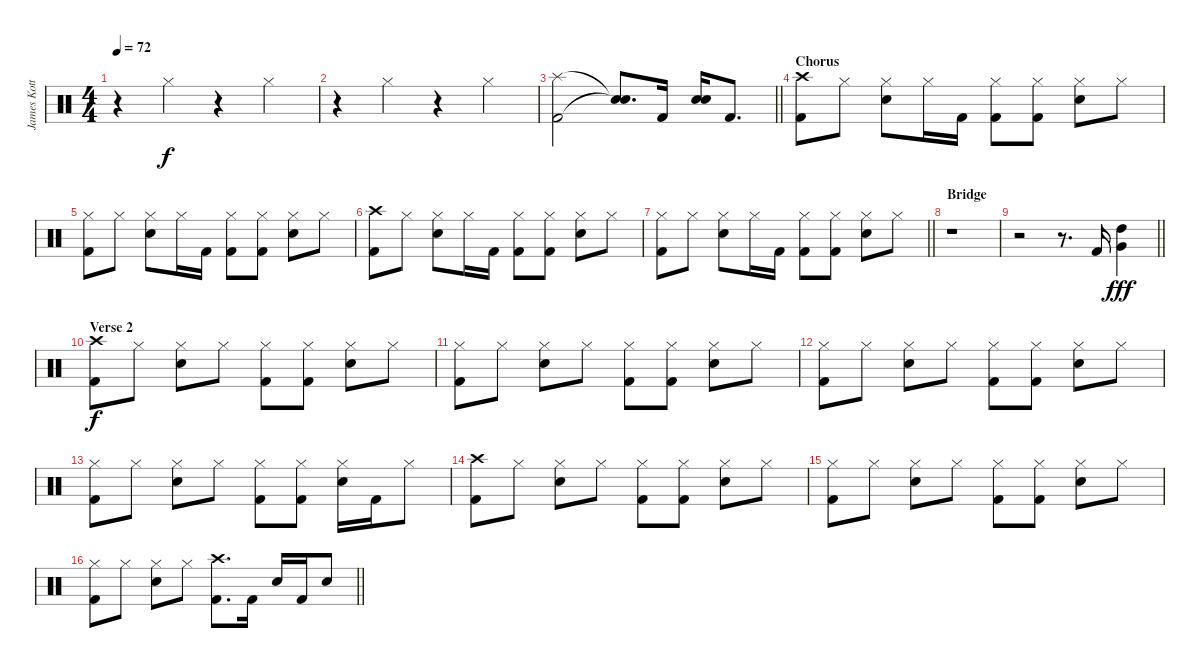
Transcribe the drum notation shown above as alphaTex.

\track ("James Kottak" "James Kott") {instrument percussion}
\staff {score}
\articulation defaults
\ts (4 4)
\tempo 72
\clef neutral
\ks c
r.4{dy f} "Hi-Hat (closed)".4 r.4 "Hi-Hat (closed)".4 |
r.4 "Hi-Hat (closed)".4 r.4 "Hi-Hat (closed)".4 |
\barLineRight lightlight
("Splash (hit)" "Kick (hit) 2").2 ("Snare (hit)"{t} "Snare (hit)"{t}).8{d} "Kick (hit) 2".16 ("Snare (hit) 2" "Snare (hit) 2").16 "Kick (hit) 2".8{d} |
\section ("" "Chorus")
("Crash high (hit)" "Kick (hit) 2").8 "Hi-Hat (closed)".8 ("Hi-Hat (closed)" "Snare (hit) 2").8 "Hi-Hat (closed)".16 "Kick (hit) 2".16 ("Hi-Hat (closed)" "Kick (hit) 2").8 ("Hi-Hat (closed)" "Kick (hit) 2").8 ("Hi-Hat (closed)" "Snare (hit) 2").8 "Hi-Hat (closed)".8 |
("Hi-Hat (closed)" "Kick (hit) 2").8 "Hi-Hat (closed)".8 ("Hi-Hat (closed)" "Snare (hit) 2").8 "Hi-Hat (closed)".16 "Kick (hit) 2".16 ("Hi-Hat (closed)" "Kick (hit) 2").8 ("Hi-Hat (closed)" "Kick (hit) 2").8 ("Hi-Hat (closed)" "Snare (hit) 2").8 "Hi-Hat (closed)".8 |
("Crash high (hit)" "Kick (hit) 2").8 "Hi-Hat (closed)".8 ("Hi-Hat (closed)" "Snare (hit) 2").8 "Hi-Hat (closed)".16 "Kick (hit) 2".16 ("Hi-Hat (closed)" "Kick (hit) 2").8 ("Hi-Hat (closed)" "Kick (hit) 2").8 ("Hi-Hat (closed)" "Snare (hit) 2").8 "Hi-Hat (closed)".8 |
\barLineRight lightlight
("Hi-Hat (closed)" "Kick (hit) 2").8 "Hi-Hat (closed)".8 ("Hi-Hat (closed)" "Snare (hit) 2").8 "Hi-Hat (closed)".16 "Kick (hit) 2".16 ("Hi-Hat (closed)" "Kick (hit) 2").8 ("Hi-Hat (closed)" "Kick (hit) 2").8 ("Hi-Hat (closed)" "Snare (hit) 2").8 "Hi-Hat (closed)".8 |
\section ("" "Bridge")
r.1 |
\barLineRight lightlight
r.2 r.8{d} "Kick (hit) 2".16 ("High Tom (hit)" "Very Low Tom (hit)").4{dy fff} |
\section ("" "Verse 2")
("Crash high (hit)" "Kick (hit) 2").8{dy f} "Hi-Hat (closed)".8 ("Hi-Hat (closed)" "Snare (hit) 2").8 "Hi-Hat (closed)".8 ("Hi-Hat (closed)" "Kick (hit) 2").8 ("Hi-Hat (closed)" "Kick (hit) 2").8 ("Hi-Hat (closed)" "Snare (hit) 2").8 "Hi-Hat (closed)".8 |
("Hi-Hat (closed)" "Kick (hit) 2").8 "Hi-Hat (closed)".8 ("Hi-Hat (closed)" "Snare (hit) 2").8 "Hi-Hat (closed)".8 ("Hi-Hat (closed)" "Kick (hit) 2").8 ("Hi-Hat (closed)" "Kick (hit) 2").8 ("Hi-Hat (closed)" "Snare (hit) 2").8 "Hi-Hat (closed)".8 |
("Hi-Hat (closed)" "Kick (hit) 2").8 "Hi-Hat (closed)".8 ("Hi-Hat (closed)" "Snare (hit) 2").8 "Hi-Hat (closed)".8 ("Hi-Hat (closed)" "Kick (hit) 2").8 ("Hi-Hat (closed)" "Kick (hit) 2").8 ("Hi-Hat (closed)" "Snare (hit) 2").8 "Hi-Hat (closed)".8 |
("Hi-Hat (closed)" "Kick (hit) 2").8 "Hi-Hat (closed)".8 ("Hi-Hat (closed)" "Snare (hit) 2").8 "Hi-Hat (closed)".8 ("Hi-Hat (closed)" "Kick (hit) 2").8 ("Hi-Hat (closed)" "Kick (hit) 2").8 ("Hi-Hat (closed)" "Snare (hit) 2").16 "Kick (hit) 2".16 "Hi-Hat (closed)".8 |
("Crash high (hit)" "Kick (hit) 2").8 "Hi-Hat (closed)".8 ("Hi-Hat (closed)" "Snare (hit) 2").8 "Hi-Hat (closed)".8 ("Hi-Hat (closed)" "Kick (hit) 2").8 ("Hi-Hat (closed)" "Kick (hit) 2").8 ("Hi-Hat (closed)" "Snare (hit) 2").8 "Hi-Hat (closed)".8 |
("Hi-Hat (closed)" "Kick (hit) 2").8 "Hi-Hat (closed)".8 ("Hi-Hat (closed)" "Snare (hit) 2").8 "Hi-Hat (closed)".8 ("Hi-Hat (closed)" "Kick (hit) 2").8 ("Hi-Hat (closed)" "Kick (hit) 2").8 ("Hi-Hat (closed)" "Snare (hit) 2").8 "Hi-Hat (closed)".8 |
\barLineRight lightlight
("Hi-Hat (closed)" "Kick (hit) 2").8 "Hi-Hat (closed)".8 ("Hi-Hat (closed)" "Snare (hit) 2").8 "Hi-Hat (closed)".8 ("Crash high (hit)" "Kick (hit) 2").8{d} "Kick (hit) 2".16 "Snare (hit) 2".16 "Kick (hit) 2".16 "Snare (hit) 2".8
